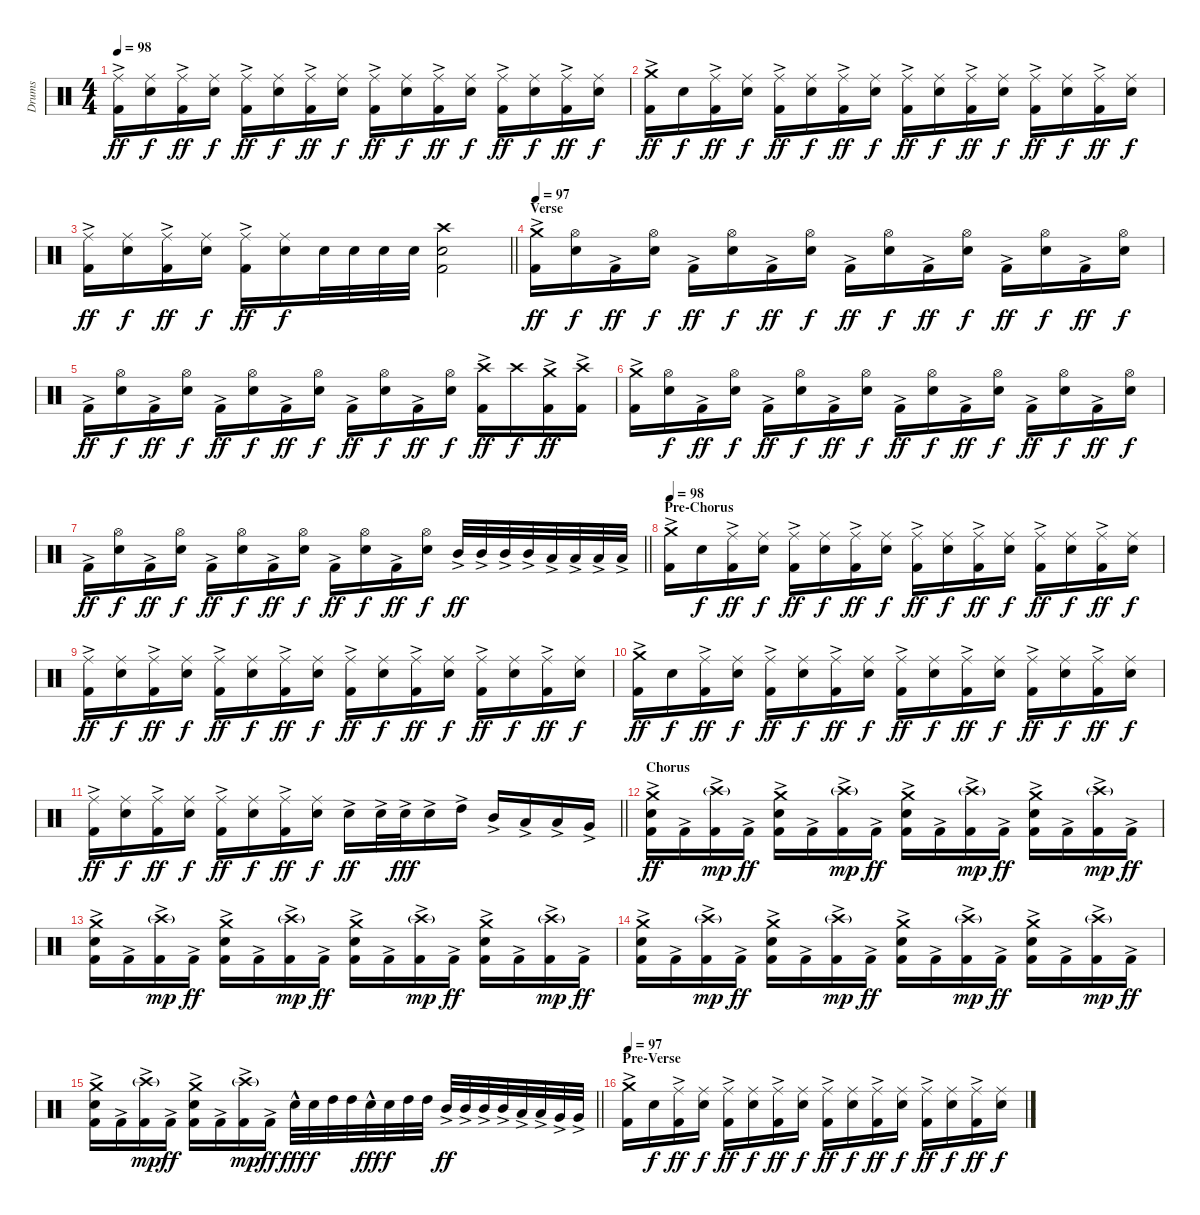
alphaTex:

\track ("Drums" "Drums") {instrument percussion}
\staff {score}
\articulation defaults
\ts (4 4)
\tempo 98
\clef neutral
\ks c
("Kick (hit) 2"{ac} "Ride (middle)").16{dy ff} ("Snare (hit) 2" "Ride (middle)").16{dy f} ("Kick (hit) 2"{ac} "Ride (middle)").16{dy ff} ("Snare (hit) 2" "Ride (middle)").16{dy f} ("Kick (hit) 2"{ac} "Ride (middle)").16{dy ff} ("Snare (hit) 2" "Ride (middle)").16{dy f} ("Kick (hit) 2"{ac} "Ride (middle)").16{dy ff} ("Snare (hit) 2" "Ride (middle)").16{dy f} ("Kick (hit) 2"{ac} "Ride (middle)").16{dy ff} ("Snare (hit) 2" "Ride (middle)").16{dy f} ("Kick (hit) 2"{ac} "Ride (middle)").16{dy ff} ("Snare (hit) 2" "Ride (middle)").16{dy f} ("Kick (hit) 2"{ac} "Ride (middle)").16{dy ff} ("Snare (hit) 2" "Ride (middle)").16{dy f} ("Kick (hit) 2"{ac} "Ride (middle)").16{dy ff} ("Snare (hit) 2" "Ride (middle)").16{dy f} |
("Kick (hit) 2"{ac} "Crash medium (hit)").16{dy ff} "Snare (hit) 2".16{dy f} ("Kick (hit) 2"{ac} "Ride (middle)").16{dy ff} ("Snare (hit) 2" "Ride (middle)").16{dy f} ("Kick (hit) 2"{ac} "Ride (middle)").16{dy ff} ("Snare (hit) 2" "Ride (middle)").16{dy f} ("Kick (hit) 2"{ac} "Ride (middle)").16{dy ff} ("Snare (hit) 2" "Ride (middle)").16{dy f} ("Kick (hit) 2"{ac} "Ride (middle)").16{dy ff} ("Snare (hit) 2" "Ride (middle)").16{dy f} ("Kick (hit) 2"{ac} "Ride (middle)").16{dy ff} ("Snare (hit) 2" "Ride (middle)").16{dy f} ("Kick (hit) 2"{ac} "Ride (middle)").16{dy ff} ("Snare (hit) 2" "Ride (middle)").16{dy f} ("Kick (hit) 2"{ac} "Ride (middle)").16{dy ff} ("Snare (hit) 2" "Ride (middle)").16{dy f} |
\barLineRight lightlight
("Kick (hit) 2"{ac} "Ride (middle)").16{dy ff} ("Snare (hit) 2" "Ride (middle)").16{dy f} ("Kick (hit) 2"{ac} "Ride (middle)").16{dy ff} ("Snare (hit) 2" "Ride (middle)").16{dy f} ("Kick (hit) 2"{ac} "Ride (middle)").16{dy ff} ("Snare (hit) 2" "Ride (middle)").16{dy f} "Snare (hit) 2".32 "Snare (hit) 2".32 "Snare (hit) 2".32 "Snare (hit) 2".32 ("Kick (hit) 2" "Snare (hit) 2" "Crash high (hit)").2 |
\section ("" "Verse")
\tempo 97
("Kick (hit) 2"{ac} "Crash medium (hit)").16{dy ff} ("Snare (hit) 2" "Hi-Hat (open)").16{dy f} "Kick (hit) 2"{ac}.16{dy ff} ("Snare (hit) 2" "Hi-Hat (open)").16{dy f} "Kick (hit) 2"{ac}.16{dy ff} ("Snare (hit) 2" "Hi-Hat (open)").16{dy f} "Kick (hit) 2"{ac}.16{dy ff} ("Snare (hit) 2" "Hi-Hat (open)").16{dy f} "Kick (hit) 2"{ac}.16{dy ff} ("Snare (hit) 2" "Hi-Hat (open)").16{dy f} "Kick (hit) 2"{ac}.16{dy ff} ("Snare (hit) 2" "Hi-Hat (open)").16{dy f} "Kick (hit) 2"{ac}.16{dy ff} ("Snare (hit) 2" "Hi-Hat (open)").16{dy f} "Kick (hit) 2"{ac}.16{dy ff} ("Snare (hit) 2" "Hi-Hat (open)").16{dy f} |
"Kick (hit) 2"{ac}.16{dy ff} ("Snare (hit) 2" "Hi-Hat (open)").16{dy f} "Kick (hit) 2"{ac}.16{dy ff} ("Snare (hit) 2" "Hi-Hat (open)").16{dy f} "Kick (hit) 2"{ac}.16{dy ff} ("Snare (hit) 2" "Hi-Hat (open)").16{dy f} "Kick (hit) 2"{ac}.16{dy ff} ("Snare (hit) 2" "Hi-Hat (open)").16{dy f} "Kick (hit) 2"{ac}.16{dy ff} ("Snare (hit) 2" "Hi-Hat (open)").16{dy f} "Kick (hit) 2"{ac}.16{dy ff} ("Snare (hit) 2" "Hi-Hat (open)").16{dy f} ("Kick (hit) 2"{ac} "Crash high (hit)").16{dy ff} "Crash high (hit)".16{dy f} ("Kick (hit) 2"{ac} "Crash medium (hit)").16{dy ff} ("Kick (hit) 2"{ac} "Crash high (hit)").16 |
("Kick (hit) 2"{ac} "Crash medium (hit)").16 ("Snare (hit) 2" "Hi-Hat (open)").16{dy f} "Kick (hit) 2"{ac}.16{dy ff} ("Snare (hit) 2" "Hi-Hat (open)").16{dy f} "Kick (hit) 2"{ac}.16{dy ff} ("Snare (hit) 2" "Hi-Hat (open)").16{dy f} "Kick (hit) 2"{ac}.16{dy ff} ("Snare (hit) 2" "Hi-Hat (open)").16{dy f} "Kick (hit) 2"{ac}.16{dy ff} ("Snare (hit) 2" "Hi-Hat (open)").16{dy f} "Kick (hit) 2"{ac}.16{dy ff} ("Snare (hit) 2" "Hi-Hat (open)").16{dy f} "Kick (hit) 2"{ac}.16{dy ff} ("Snare (hit) 2" "Hi-Hat (open)").16{dy f} "Kick (hit) 2"{ac}.16{dy ff} ("Snare (hit) 2" "Hi-Hat (open)").16{dy f} |
\barLineRight lightlight "Kick (hit) 2"{ac}.16{dy ff}
("Snare (hit) 2" "Hi-Hat (open)").16{dy f} "Kick (hit) 2"{ac}.16{dy ff} ("Snare (hit) 2" "Hi-Hat (open)").16{dy f} "Kick (hit) 2"{ac}.16{dy ff} ("Snare (hit) 2" "Hi-Hat (open)").16{dy f} "Kick (hit) 2"{ac}.16{dy ff} ("Snare (hit) 2" "Hi-Hat (open)").16{dy f} "Kick (hit) 2"{ac}.16{dy ff} ("Snare (hit) 2" "Hi-Hat (open)").16{dy f} "Kick (hit) 2"{ac}.16{dy ff} ("Snare (hit) 2" "Hi-Hat (open)").16{dy f} "Mid Tom (hit)"{ac}.32{dy ff} "Mid Tom (hit)"{ac}.32 "Mid Tom (hit)"{ac}.32 "Mid Tom (hit)"{ac}.32 "Low Tom (hit)"{ac}.32 "Low Tom (hit)"{ac}.32 "Low Tom (hit)"{ac}.32 "Low Tom (hit)"{ac}.32 |
\section ("" "Pre-Chorus")
\tempo 98
("Kick (hit) 2"{ac} "Crash medium (hit)").16 "Snare (hit) 2".16{dy f} ("Kick (hit) 2"{ac} "Ride (middle)").16{dy ff} ("Snare (hit) 2" "Ride (middle)").16{dy f} ("Kick (hit) 2"{ac} "Ride (middle)").16{dy ff} ("Snare (hit) 2" "Ride (middle)").16{dy f} ("Kick (hit) 2"{ac} "Ride (middle)").16{dy ff} ("Snare (hit) 2" "Ride (middle)").16{dy f} ("Kick (hit) 2"{ac} "Ride (middle)").16{dy ff} ("Snare (hit) 2" "Ride (middle)").16{dy f} ("Kick (hit) 2"{ac} "Ride (middle)").16{dy ff} ("Snare (hit) 2" "Ride (middle)").16{dy f} ("Kick (hit) 2"{ac} "Ride (middle)").16{dy ff} ("Snare (hit) 2" "Ride (middle)").16{dy f} ("Kick (hit) 2"{ac} "Ride (middle)").16{dy ff} ("Snare (hit) 2" "Ride (middle)").16{dy f} |
("Kick (hit) 2"{ac} "Ride (middle)").16{dy ff} ("Snare (hit) 2" "Ride (middle)").16{dy f} ("Kick (hit) 2"{ac} "Ride (middle)").16{dy ff} ("Snare (hit) 2" "Ride (middle)").16{dy f} ("Kick (hit) 2"{ac} "Ride (middle)").16{dy ff} ("Snare (hit) 2" "Ride (middle)").16{dy f} ("Kick (hit) 2"{ac} "Ride (middle)").16{dy ff} ("Snare (hit) 2" "Ride (middle)").16{dy f} ("Kick (hit) 2"{ac} "Ride (middle)").16{dy ff} ("Snare (hit) 2" "Ride (middle)").16{dy f} ("Kick (hit) 2"{ac} "Ride (middle)").16{dy ff} ("Snare (hit) 2" "Ride (middle)").16{dy f} ("Kick (hit) 2"{ac} "Ride (middle)").16{dy ff} ("Snare (hit) 2" "Ride (middle)").16{dy f} ("Kick (hit) 2"{ac} "Ride (middle)").16{dy ff} ("Snare (hit) 2" "Ride (middle)").16{dy f} |
("Kick (hit) 2"{ac} "Crash medium (hit)").16{dy ff} "Snare (hit) 2".16{dy f} ("Kick (hit) 2"{ac} "Ride (middle)").16{dy ff} ("Snare (hit) 2" "Ride (middle)").16{dy f} ("Kick (hit) 2"{ac} "Ride (middle)").16{dy ff} ("Snare (hit) 2" "Ride (middle)").16{dy f} ("Kick (hit) 2"{ac} "Ride (middle)").16{dy ff} ("Snare (hit) 2" "Ride (middle)").16{dy f} ("Kick (hit) 2"{ac} "Ride (middle)").16{dy ff} ("Snare (hit) 2" "Ride (middle)").16{dy f} ("Kick (hit) 2"{ac} "Ride (middle)").16{dy ff} ("Snare (hit) 2" "Ride (middle)").16{dy f} ("Kick (hit) 2"{ac} "Ride (middle)").16{dy ff} ("Snare (hit) 2" "Ride (middle)").16{dy f} ("Kick (hit) 2"{ac} "Ride (middle)").16{dy ff} ("Snare (hit) 2" "Ride (middle)").16{dy f} |
\barLineRight lightlight
("Kick (hit) 2"{ac} "Ride (middle)").16{dy ff} ("Snare (hit) 2" "Ride (middle)").16{dy f} ("Kick (hit) 2"{ac} "Ride (middle)").16{dy ff} ("Snare (hit) 2" "Ride (middle)").16{dy f} ("Kick (hit) 2"{ac} "Ride (middle)").16{dy ff} ("Snare (hit) 2" "Ride (middle)").16{dy f} ("Kick (hit) 2"{ac} "Ride (middle)").16{dy ff} ("Snare (hit) 2" "Ride (middle)").16{dy f} "Snare (hit) 2"{ac}.16{dy ff} "Snare (hit) 2"{ac}.32 "Snare (hit) 2"{ac}.32{dy fff} "Snare (hit) 2"{ac}.16 "High Tom (hit)"{ac}.16 "Mid Tom (hit)"{ac}.16 "Low Tom (hit)"{ac}.16 "Low Tom (hit)"{ac}.16 "Very Low Tom (hit)"{ac}.16 |
\section ("" "Chorus")
("Kick (hit) 2"{ac} "Snare (hit) 2" "Crash medium (hit)").16{dy ff} "Kick (hit) 2"{ac}.16 ("Kick (hit) 2"{ac} "Crash high (hit)"{g}).16{dy mp} "Kick (hit) 2"{ac}.16{dy ff} ("Kick (hit) 2"{ac} "Snare (hit) 2" "Crash medium (hit)").16 "Kick (hit) 2"{ac}.16 ("Kick (hit) 2"{ac} "Crash high (hit)"{g}).16{dy mp} "Kick (hit) 2"{ac}.16{dy ff} ("Kick (hit) 2"{ac} "Snare (hit) 2" "Crash medium (hit)").16 "Kick (hit) 2"{ac}.16 ("Kick (hit) 2"{ac} "Crash high (hit)"{g}).16{dy mp} "Kick (hit) 2"{ac}.16{dy ff} ("Kick (hit) 2"{ac} "Snare (hit) 2" "Crash medium (hit)").16 "Kick (hit) 2"{ac}.16 ("Kick (hit) 2"{ac} "Crash high (hit)"{g}).16{dy mp} "Kick (hit) 2"{ac}.16{dy ff} |
("Kick (hit) 2"{ac} "Snare (hit) 2" "Crash medium (hit)").16 "Kick (hit) 2"{ac}.16 ("Kick (hit) 2"{ac} "Crash high (hit)"{g}).16{dy mp} "Kick (hit) 2"{ac}.16{dy ff} ("Kick (hit) 2"{ac} "Snare (hit) 2" "Crash medium (hit)").16 "Kick (hit) 2"{ac}.16 ("Kick (hit) 2"{ac} "Crash high (hit)"{g}).16{dy mp} "Kick (hit) 2"{ac}.16{dy ff} ("Kick (hit) 2"{ac} "Snare (hit) 2" "Crash medium (hit)").16 "Kick (hit) 2"{ac}.16 ("Kick (hit) 2"{ac} "Crash high (hit)"{g}).16{dy mp} "Kick (hit) 2"{ac}.16{dy ff} ("Kick (hit) 2"{ac} "Snare (hit) 2" "Crash medium (hit)").16 "Kick (hit) 2"{ac}.16 ("Kick (hit) 2"{ac} "Crash high (hit)"{g}).16{dy mp} "Kick (hit) 2"{ac}.16{dy ff} |
("Kick (hit) 2"{ac} "Snare (hit) 2" "Crash medium (hit)").16 "Kick (hit) 2"{ac}.16 ("Kick (hit) 2"{ac} "Crash high (hit)"{g}).16{dy mp} "Kick (hit) 2"{ac}.16{dy ff} ("Kick (hit) 2"{ac} "Snare (hit) 2" "Crash medium (hit)").16 "Kick (hit) 2"{ac}.16 ("Kick (hit) 2"{ac} "Crash high (hit)"{g}).16{dy mp} "Kick (hit) 2"{ac}.16{dy ff} ("Kick (hit) 2"{ac} "Snare (hit) 2" "Crash medium (hit)").16 "Kick (hit) 2"{ac}.16 ("Kick (hit) 2"{ac} "Crash high (hit)"{g}).16{dy mp} "Kick (hit) 2"{ac}.16{dy ff} ("Kick (hit) 2"{ac} "Snare (hit) 2" "Crash medium (hit)").16 "Kick (hit) 2"{ac}.16 ("Kick (hit) 2"{ac} "Crash high (hit)"{g}).16{dy mp} "Kick (hit) 2"{ac}.16{dy ff} |
\barLineRight lightlight
("Kick (hit) 2"{ac} "Snare (hit) 2" "Crash medium (hit)").16 "Kick (hit) 2"{ac}.16 ("Kick (hit) 2"{ac} "Crash high (hit)"{g}).16{dy mp} "Kick (hit) 2"{ac}.16{dy ff} ("Kick (hit) 2"{ac} "Snare (hit) 2" "Crash medium (hit)").16 "Kick (hit) 2"{ac}.16 ("Kick (hit) 2"{ac} "Crash high (hit)"{g}).16{dy mp} "Kick (hit) 2"{ac}.16{dy ff} "Snare (hit) 2"{hac}.32{dy fff} "Snare (hit) 2".32{dy f} "High Tom (hit)".32 "High Tom (hit)".32 "Snare (hit) 2"{hac}.32{dy fff} "Snare (hit) 2".32{dy f} "High Tom (hit)".32 "High Tom (hit)".32 "Mid Tom (hit)"{ac}.32{dy ff} "Mid Tom (hit)"{ac}.32 "Mid Tom (hit)"{ac}.32 "Mid Tom (hit)"{ac}.32 "Low Tom (hit)"{ac}.32 "Low Tom (hit)"{ac}.32 "Very Low Tom (hit)"{ac}.32 "Very Low Tom (hit)"{ac}.32 |
\section ("" "Pre-Verse")
\tempo 97
("Kick (hit) 2"{ac} "Crash medium (hit)").16 "Snare (hit) 2".16{dy f} ("Kick (hit) 2"{ac} "Ride (middle)").16{dy ff} ("Snare (hit) 2" "Ride (middle)").16{dy f} ("Kick (hit) 2"{ac} "Ride (middle)").16{dy ff} ("Snare (hit) 2" "Ride (middle)").16{dy f} ("Kick (hit) 2"{ac} "Ride (middle)").16{dy ff} ("Snare (hit) 2" "Ride (middle)").16{dy f} ("Kick (hit) 2"{ac} "Ride (middle)").16{dy ff} ("Snare (hit) 2" "Ride (middle)").16{dy f} ("Kick (hit) 2"{ac} "Ride (middle)").16{dy ff} ("Snare (hit) 2" "Ride (middle)").16{dy f} ("Kick (hit) 2"{ac} "Ride (middle)").16{dy ff} ("Snare (hit) 2" "Ride (middle)").16{dy f} ("Kick (hit) 2"{ac} "Ride (middle)").16{dy ff} ("Snare (hit) 2" "Ride (middle)").16{dy f}
